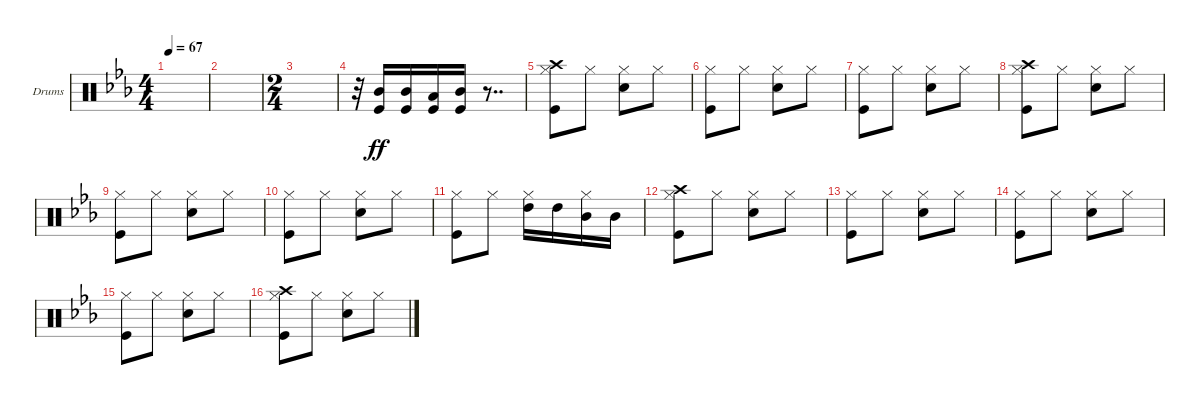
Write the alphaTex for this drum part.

\defaultSystemsLayout 4
\bracketExtendMode groupsimilarinstruments
\firstSystemTrackNameOrientation horizontal
\otherSystemsTrackNameOrientation horizontal
\track ("Drumkit" "Drums") {instrument percussion}
\staff {score}
\articulation defaults
\ts (4 4)
\tempo 67
\clef neutral
\scale
0.333333
\ks cminor
|
\scale
0.333333 |
\ts (2 4)
|
r.32 ("Kick (hit)" "Mid Tom (hit)").16{dy ff} ("Kick (hit)" "Mid Tom (hit)").16 ("Kick (hit)" "Low Tom (hit)").16 ("Kick (hit)" "Mid Tom (hit)").16 r.8{dd} |
("Hi-Hat (closed)" "Crash high (hit)" "Kick (hit)").8 "Hi-Hat (closed)".8 ("Hi-Hat (closed)" "Snare (hit) 2").8 "Hi-Hat (closed)".8 |
("Hi-Hat (closed)" "Kick (hit)").8 "Hi-Hat (closed)".8 ("Hi-Hat (closed)" "Snare (hit) 2").8 "Hi-Hat (closed)".8 |
("Hi-Hat (closed)" "Kick (hit)").8 "Hi-Hat (closed)".8 ("Hi-Hat (closed)" "Snare (hit) 2").8 "Hi-Hat (closed)".8 |
("Hi-Hat (closed)" "Crash high (hit)" "Kick (hit)").8 "Hi-Hat (closed)".8 ("Hi-Hat (closed)" "Snare (hit) 2").8 "Hi-Hat (closed)".8 |
("Hi-Hat (closed)" "Kick (hit)").8 "Hi-Hat (closed)".8 ("Hi-Hat (closed)" "Snare (hit) 2").8 "Hi-Hat (closed)".8 |
("Hi-Hat (closed)" "Kick (hit)").8 "Hi-Hat (closed)".8 ("Hi-Hat (closed)" "Snare (hit) 2").8 "Hi-Hat (closed)".8 |
("Hi-Hat (closed)" "Kick (hit)").8 "Hi-Hat (closed)".8 ("Hi-Hat (closed)" "High Tom (hit)").16 "High Tom (hit)".16 ("Mid Tom (hit)" "Hi-Hat (closed)").16 "Mid Tom (hit)".16 |
("Hi-Hat (closed)" "Crash high (hit)" "Kick (hit)").8 "Hi-Hat (closed)".8 ("Hi-Hat (closed)" "Snare (hit) 2").8 "Hi-Hat (closed)".8 |
("Hi-Hat (closed)" "Kick (hit)").8 "Hi-Hat (closed)".8 ("Hi-Hat (closed)" "Snare (hit) 2").8 "Hi-Hat (closed)".8 |
("Hi-Hat (closed)" "Kick (hit)").8 "Hi-Hat (closed)".8 ("Hi-Hat (closed)" "Snare (hit) 2").8 "Hi-Hat (closed)".8 |
("Hi-Hat (closed)" "Kick (hit)").8 "Hi-Hat (closed)".8 ("Hi-Hat (closed)" "Snare (hit) 2").8 "Hi-Hat (closed)".8 |
("Hi-Hat (closed)" "Crash high (hit)" "Kick (hit)").8 "Hi-Hat (closed)".8 ("Hi-Hat (closed)" "Snare (hit) 2").8 "Hi-Hat (closed)".8
